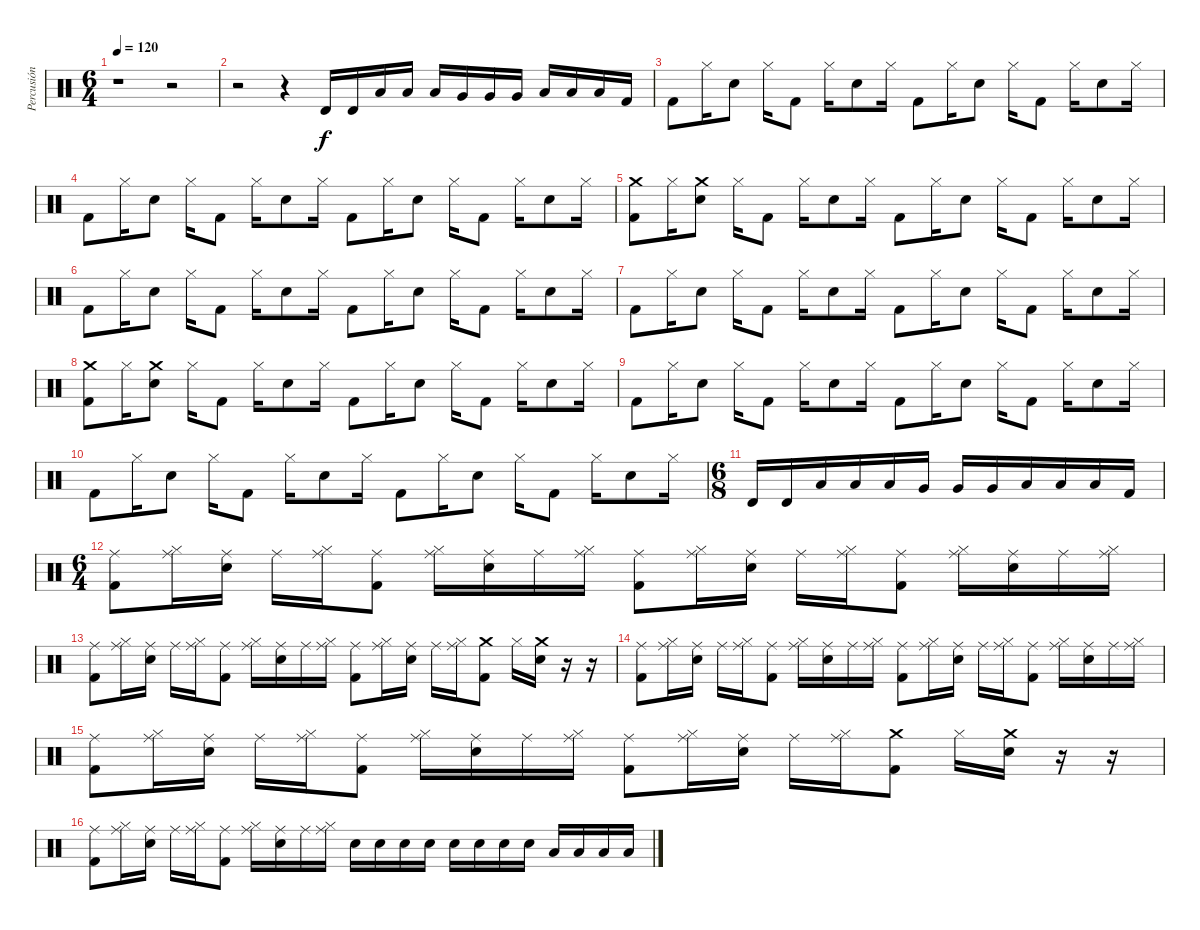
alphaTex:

\track ("Percusión" "Percusión") {instrument percussion}
\staff {score}
\articulation defaults
\ts (6 4)
\tempo 120
\clef neutral
\ks c
r.1{dy f} r.2 |
r.2 r.4 "Timbale high (hit)".16 "Timbale high (hit)".16 "Low Tom (hit)".16 "Low Tom (hit)".16 "Low Tom (hit)".16 "Very Low Tom (hit)".16 "Very Low Tom (hit)".16 "Very Low Tom (hit)".16 "Low Floor Tom (hit)".16 "Low Floor Tom (hit)".16 "Low Floor Tom (hit)".16 "Kick (hit) 2".16 |
"Kick (hit) 2".8 "Hi-Hat (closed)".16 "Snare (hit) 2".8 "Hi-Hat (closed)".16 "Kick (hit) 2".8 "Hi-Hat (closed)".16 "Snare (hit) 2".8 "Hi-Hat (closed)".16 "Kick (hit) 2".8 "Hi-Hat (closed)".16 "Snare (hit) 2".8 "Hi-Hat (closed)".16 "Kick (hit) 2".8 "Hi-Hat (closed)".16 "Snare (hit) 2".8 "Hi-Hat (closed)".16 |
"Kick (hit) 2".8 "Hi-Hat (closed)".16 "Snare (hit) 2".8 "Hi-Hat (closed)".16 "Kick (hit) 2".8 "Hi-Hat (closed)".16 "Snare (hit) 2".8 "Hi-Hat (closed)".16 "Kick (hit) 2".8 "Hi-Hat (closed)".16 "Snare (hit) 2".8 "Hi-Hat (closed)".16 "Kick (hit) 2".8 "Hi-Hat (closed)".16 "Snare (hit) 2".8 "Hi-Hat (closed)".16 |
("Crash medium (hit)" "Kick (hit) 2").8 "Hi-Hat (closed)".16 ("Crash medium (hit)" "Snare (hit) 2").8 "Hi-Hat (closed)".16 "Kick (hit) 2".8 "Hi-Hat (closed)".16 "Snare (hit) 2".8 "Hi-Hat (closed)".16 "Kick (hit) 2".8 "Hi-Hat (closed)".16 "Snare (hit) 2".8 "Hi-Hat (closed)".16 "Kick (hit) 2".8 "Hi-Hat (closed)".16 "Snare (hit) 2".8 "Hi-Hat (closed)".16 |
"Kick (hit) 2".8 "Hi-Hat (closed)".16 "Snare (hit) 2".8 "Hi-Hat (closed)".16 "Kick (hit) 2".8 "Hi-Hat (closed)".16 "Snare (hit) 2".8 "Hi-Hat (closed)".16 "Kick (hit) 2".8 "Hi-Hat (closed)".16 "Snare (hit) 2".8 "Hi-Hat (closed)".16 "Kick (hit) 2".8 "Hi-Hat (closed)".16 "Snare (hit) 2".8 "Hi-Hat (closed)".16 |
"Kick (hit) 2".8 "Hi-Hat (closed)".16 "Snare (hit) 2".8 "Hi-Hat (closed)".16 "Kick (hit) 2".8 "Hi-Hat (closed)".16 "Snare (hit) 2".8 "Hi-Hat (closed)".16 "Kick (hit) 2".8 "Hi-Hat (closed)".16 "Snare (hit) 2".8 "Hi-Hat (closed)".16 "Kick (hit) 2".8 "Hi-Hat (closed)".16 "Snare (hit) 2".8 "Hi-Hat (closed)".16 |
("Crash medium (hit)" "Kick (hit) 2").8 "Hi-Hat (closed)".16 ("Crash medium (hit)" "Snare (hit) 2").8 "Hi-Hat (closed)".16 "Kick (hit) 2".8 "Hi-Hat (closed)".16 "Snare (hit) 2".8 "Hi-Hat (closed)".16 "Kick (hit) 2".8 "Hi-Hat (closed)".16 "Snare (hit) 2".8 "Hi-Hat (closed)".16 "Kick (hit) 2".8 "Hi-Hat (closed)".16 "Snare (hit) 2".8 "Hi-Hat (closed)".16 |
"Kick (hit) 2".8 "Hi-Hat (closed)".16 "Snare (hit) 2".8 "Hi-Hat (closed)".16 "Kick (hit) 2".8 "Hi-Hat (closed)".16 "Snare (hit) 2".8 "Hi-Hat (closed)".16 "Kick (hit) 2".8 "Hi-Hat (closed)".16 "Snare (hit) 2".8 "Hi-Hat (closed)".16 "Kick (hit) 2".8 "Hi-Hat (closed)".16 "Snare (hit) 2".8 "Hi-Hat (closed)".16 |
"Kick (hit) 2".8 "Hi-Hat (closed)".16 "Snare (hit) 2".8 "Hi-Hat (closed)".16 "Kick (hit) 2".8 "Hi-Hat (closed)".16 "Snare (hit) 2".8 "Hi-Hat (closed)".16 "Kick (hit) 2".8 "Hi-Hat (closed)".16 "Snare (hit) 2".8 "Hi-Hat (closed)".16 "Kick (hit) 2".8 "Hi-Hat (closed)".16 "Snare (hit) 2".8 "Hi-Hat (closed)".16 |
\ts (6 8)
"Timbale high (hit)".16 "Timbale high (hit)".16 "Low Tom (hit)".16 "Low Tom (hit)".16 "Low Tom (hit)".16 "Very Low Tom (hit)".16 "Very Low Tom (hit)".16 "Very Low Tom (hit)".16 "Low Floor Tom (hit)".16 "Low Floor Tom (hit)".16 "Low Floor Tom (hit)".16 "Kick (hit) 2".16 |
\ts (6 4)
("Ride (middle)" "Kick (hit) 2").8 ("Ride (middle)" "Hi-Hat (closed)").16 ("Ride (middle)" "Snare (hit) 2").16 "Ride (middle)".16 ("Ride (middle)" "Hi-Hat (closed)").16 ("Ride (middle)" "Kick (hit) 2").8 ("Ride (middle)" "Hi-Hat (closed)").16 ("Ride (middle)" "Snare (hit) 2").16 "Ride (middle)".16 ("Ride (middle)" "Hi-Hat (closed)").16 ("Ride (middle)" "Kick (hit) 2").8 ("Ride (middle)" "Hi-Hat (closed)").16 ("Ride (middle)" "Snare (hit) 2").16 "Ride (middle)".16 ("Ride (middle)" "Hi-Hat (closed)").16 ("Ride (middle)" "Kick (hit) 2").8 ("Ride (middle)" "Hi-Hat (closed)").16 ("Ride (middle)" "Snare (hit) 2").16 "Ride (middle)".16 ("Ride (middle)" "Hi-Hat (closed)").16 |
("Ride (middle)" "Kick (hit) 2").8 ("Ride (middle)" "Hi-Hat (closed)").16 ("Ride (middle)" "Snare (hit) 2").16 "Ride (middle)".16 ("Ride (middle)" "Hi-Hat (closed)").16 ("Ride (middle)" "Kick (hit) 2").8 ("Ride (middle)" "Hi-Hat (closed)").16 ("Ride (middle)" "Snare (hit) 2").16 "Ride (middle)".16 ("Ride (middle)" "Hi-Hat (closed)").16 ("Ride (middle)" "Kick (hit) 2").8 ("Ride (middle)" "Hi-Hat (closed)").16 ("Ride (middle)" "Snare (hit) 2").16 "Ride (middle)".16 ("Ride (middle)" "Hi-Hat (closed)").16 ("Crash medium (hit)" "Kick (hit) 2").8 "Hi-Hat (closed)".16 ("Crash medium (hit)" "Snare (hit) 2").16 r.16 r.16 |
("Ride (middle)" "Kick (hit) 2").8 ("Ride (middle)" "Hi-Hat (closed)").16 ("Ride (middle)" "Snare (hit) 2").16 "Ride (middle)".16 ("Ride (middle)" "Hi-Hat (closed)").16 ("Ride (middle)" "Kick (hit) 2").8 ("Ride (middle)" "Hi-Hat (closed)").16 ("Ride (middle)" "Snare (hit) 2").16 "Ride (middle)".16 ("Ride (middle)" "Hi-Hat (closed)").16 ("Ride (middle)" "Kick (hit) 2").8 ("Ride (middle)" "Hi-Hat (closed)").16 ("Ride (middle)" "Snare (hit) 2").16 "Ride (middle)".16 ("Ride (middle)" "Hi-Hat (closed)").16 ("Ride (middle)" "Kick (hit) 2").8 ("Ride (middle)" "Hi-Hat (closed)").16 ("Ride (middle)" "Snare (hit) 2").16 "Ride (middle)".16 ("Ride (middle)" "Hi-Hat (closed)").16 |
("Ride (middle)" "Kick (hit) 2").8 ("Ride (middle)" "Hi-Hat (closed)").16 ("Ride (middle)" "Snare (hit) 2").16 "Ride (middle)".16 ("Ride (middle)" "Hi-Hat (closed)").16 ("Ride (middle)" "Kick (hit) 2").8 ("Ride (middle)" "Hi-Hat (closed)").16 ("Ride (middle)" "Snare (hit) 2").16 "Ride (middle)".16 ("Ride (middle)" "Hi-Hat (closed)").16 ("Ride (middle)" "Kick (hit) 2").8 ("Ride (middle)" "Hi-Hat (closed)").16 ("Ride (middle)" "Snare (hit) 2").16 "Ride (middle)".16 ("Ride (middle)" "Hi-Hat (closed)").16 ("Crash medium (hit)" "Kick (hit) 2").8 "Hi-Hat (closed)".16 ("Crash medium (hit)" "Snare (hit) 2").16 r.16 r.16 |
("Ride (middle)" "Kick (hit) 2").8 ("Ride (middle)" "Hi-Hat (closed)").16 ("Ride (middle)" "Snare (hit) 2").16 "Ride (middle)".16 ("Ride (middle)" "Hi-Hat (closed)").16 ("Ride (middle)" "Kick (hit) 2").8 ("Ride (middle)" "Hi-Hat (closed)").16 ("Ride (middle)" "Snare (hit) 2").16 "Ride (middle)".16 ("Ride (middle)" "Hi-Hat (closed)").16 "Snare (hit) 2".16 "Snare (hit) 2".16 "Snare (hit) 2".16 "Snare (hit) 2".16 "Snare (hit) 2".16 "Snare (hit) 2".16 "Snare (hit) 2".16 "Snare (hit) 2".16 "Low Tom (hit)".16 "Low Tom (hit)".16 "Low Floor Tom (hit)".16 "Low Floor Tom (hit)".16
